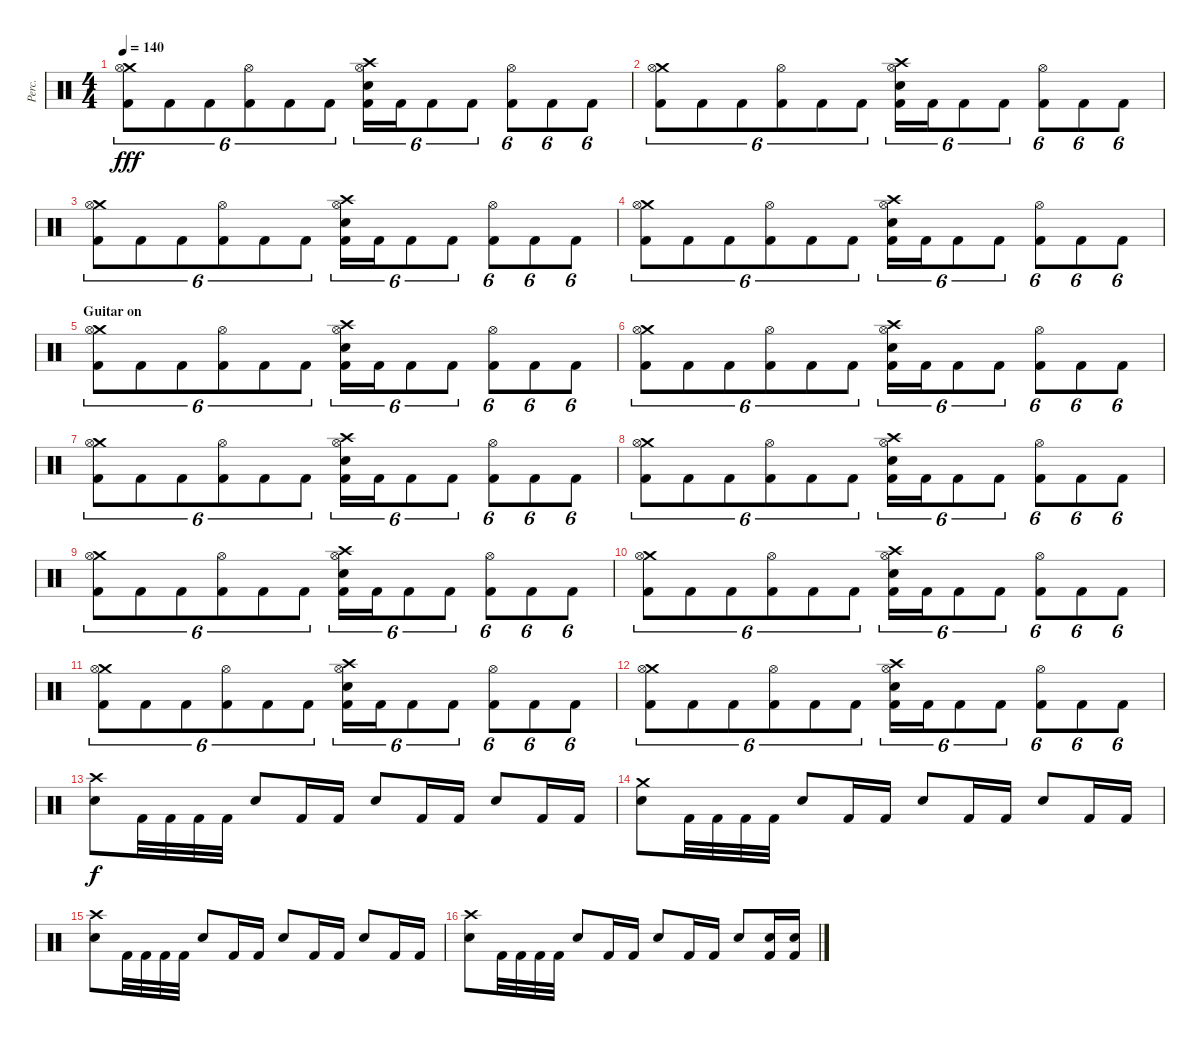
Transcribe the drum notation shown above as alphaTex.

\track ("Perc." "Perc.") {instrument percussion}
\staff {score}
\articulation defaults
\ts (4 4)
\tempo 140
\clef neutral
\ks c
("Crash medium (hit)" "Hi-Hat (open)" "Kick (hit) 2").8{tu (6 4) dy fff} "Kick (hit) 2".8{tu (6 4)} "Kick (hit) 2".8{tu (6 4)} ("Hi-Hat (open)" "Kick (hit) 2").8{tu (6 4)} "Kick (hit) 2".8{tu (6 4)} "Kick (hit) 2".8{tu (6 4)} ("Crash high (hit)" "Electric Snare (hit)" "Hi-Hat (open)" "Kick (hit) 2").16{tu (6 4)} "Kick (hit) 2".16{tu (6 4)} "Kick (hit) 2".8{tu (6 4)} "Kick (hit) 2".8{tu (6 4)} ("Hi-Hat (open)" "Kick (hit) 2").8{tu (6 4)} "Kick (hit) 2".8{tu (6 4)} "Kick (hit) 2".8{tu (6 4)} |
("Crash medium (hit)" "Hi-Hat (open)" "Kick (hit) 2").8{tu (6 4)} "Kick (hit) 2".8{tu (6 4)} "Kick (hit) 2".8{tu (6 4)} ("Hi-Hat (open)" "Kick (hit) 2").8{tu (6 4)} "Kick (hit) 2".8{tu (6 4)} "Kick (hit) 2".8{tu (6 4)} ("Crash high (hit)" "Electric Snare (hit)" "Hi-Hat (open)" "Kick (hit) 2").16{tu (6 4)} "Kick (hit) 2".16{tu (6 4)} "Kick (hit) 2".8{tu (6 4)} "Kick (hit) 2".8{tu (6 4)} ("Hi-Hat (open)" "Kick (hit) 2").8{tu (6 4)} "Kick (hit) 2".8{tu (6 4)} "Kick (hit) 2".8{tu (6 4)} |
("Crash medium (hit)" "Hi-Hat (open)" "Kick (hit) 2").8{tu (6 4)} "Kick (hit) 2".8{tu (6 4)} "Kick (hit) 2".8{tu (6 4)} ("Hi-Hat (open)" "Kick (hit) 2").8{tu (6 4)} "Kick (hit) 2".8{tu (6 4)} "Kick (hit) 2".8{tu (6 4)} ("Crash high (hit)" "Electric Snare (hit)" "Hi-Hat (open)" "Kick (hit) 2").16{tu (6 4)} "Kick (hit) 2".16{tu (6 4)} "Kick (hit) 2".8{tu (6 4)} "Kick (hit) 2".8{tu (6 4)} ("Hi-Hat (open)" "Kick (hit) 2").8{tu (6 4)} "Kick (hit) 2".8{tu (6 4)} "Kick (hit) 2".8{tu (6 4)} |
("Crash medium (hit)" "Hi-Hat (open)" "Kick (hit) 2").8{tu (6 4)} "Kick (hit) 2".8{tu (6 4)} "Kick (hit) 2".8{tu (6 4)} ("Hi-Hat (open)" "Kick (hit) 2").8{tu (6 4)} "Kick (hit) 2".8{tu (6 4)} "Kick (hit) 2".8{tu (6 4)} ("Crash high (hit)" "Electric Snare (hit)" "Hi-Hat (open)" "Kick (hit) 2").16{tu (6 4)} "Kick (hit) 2".16{tu (6 4)} "Kick (hit) 2".8{tu (6 4)} "Kick (hit) 2".8{tu (6 4)} ("Hi-Hat (open)" "Kick (hit) 2").8{tu (6 4)} "Kick (hit) 2".8{tu (6 4)} "Kick (hit) 2".8{tu (6 4)} |
\section ("" "Guitar on")
("Crash medium (hit)" "Hi-Hat (open)" "Kick (hit) 2").8{tu (6 4)} "Kick (hit) 2".8{tu (6 4)} "Kick (hit) 2".8{tu (6 4)} ("Hi-Hat (open)" "Kick (hit) 2").8{tu (6 4)} "Kick (hit) 2".8{tu (6 4)} "Kick (hit) 2".8{tu (6 4)} ("Crash high (hit)" "Electric Snare (hit)" "Hi-Hat (open)" "Kick (hit) 2").16{tu (6 4)} "Kick (hit) 2".16{tu (6 4)} "Kick (hit) 2".8{tu (6 4)} "Kick (hit) 2".8{tu (6 4)} ("Hi-Hat (open)" "Kick (hit) 2").8{tu (6 4)} "Kick (hit) 2".8{tu (6 4)} "Kick (hit) 2".8{tu (6 4)} |
("Crash medium (hit)" "Hi-Hat (open)" "Kick (hit) 2").8{tu (6 4)} "Kick (hit) 2".8{tu (6 4)} "Kick (hit) 2".8{tu (6 4)} ("Hi-Hat (open)" "Kick (hit) 2").8{tu (6 4)} "Kick (hit) 2".8{tu (6 4)} "Kick (hit) 2".8{tu (6 4)} ("Crash high (hit)" "Electric Snare (hit)" "Hi-Hat (open)" "Kick (hit) 2").16{tu (6 4)} "Kick (hit) 2".16{tu (6 4)} "Kick (hit) 2".8{tu (6 4)} "Kick (hit) 2".8{tu (6 4)} ("Hi-Hat (open)" "Kick (hit) 2").8{tu (6 4)} "Kick (hit) 2".8{tu (6 4)} "Kick (hit) 2".8{tu (6 4)} |
("Crash medium (hit)" "Hi-Hat (open)" "Kick (hit) 2").8{tu (6 4)} "Kick (hit) 2".8{tu (6 4)} "Kick (hit) 2".8{tu (6 4)} ("Hi-Hat (open)" "Kick (hit) 2").8{tu (6 4)} "Kick (hit) 2".8{tu (6 4)} "Kick (hit) 2".8{tu (6 4)} ("Crash high (hit)" "Electric Snare (hit)" "Hi-Hat (open)" "Kick (hit) 2").16{tu (6 4)} "Kick (hit) 2".16{tu (6 4)} "Kick (hit) 2".8{tu (6 4)} "Kick (hit) 2".8{tu (6 4)} ("Hi-Hat (open)" "Kick (hit) 2").8{tu (6 4)} "Kick (hit) 2".8{tu (6 4)} "Kick (hit) 2".8{tu (6 4)} |
("Crash medium (hit)" "Hi-Hat (open)" "Kick (hit) 2").8{tu (6 4)} "Kick (hit) 2".8{tu (6 4)} "Kick (hit) 2".8{tu (6 4)} ("Hi-Hat (open)" "Kick (hit) 2").8{tu (6 4)} "Kick (hit) 2".8{tu (6 4)} "Kick (hit) 2".8{tu (6 4)} ("Crash high (hit)" "Electric Snare (hit)" "Hi-Hat (open)" "Kick (hit) 2").16{tu (6 4)} "Kick (hit) 2".16{tu (6 4)} "Kick (hit) 2".8{tu (6 4)} "Kick (hit) 2".8{tu (6 4)} ("Hi-Hat (open)" "Kick (hit) 2").8{tu (6 4)} "Kick (hit) 2".8{tu (6 4)} "Kick (hit) 2".8{tu (6 4)} |
("Crash medium (hit)" "Hi-Hat (open)" "Kick (hit) 2").8{tu (6 4)} "Kick (hit) 2".8{tu (6 4)} "Kick (hit) 2".8{tu (6 4)} ("Hi-Hat (open)" "Kick (hit) 2").8{tu (6 4)} "Kick (hit) 2".8{tu (6 4)} "Kick (hit) 2".8{tu (6 4)} ("Crash high (hit)" "Electric Snare (hit)" "Hi-Hat (open)" "Kick (hit) 2").16{tu (6 4)} "Kick (hit) 2".16{tu (6 4)} "Kick (hit) 2".8{tu (6 4)} "Kick (hit) 2".8{tu (6 4)} ("Hi-Hat (open)" "Kick (hit) 2").8{tu (6 4)} "Kick (hit) 2".8{tu (6 4)} "Kick (hit) 2".8{tu (6 4)} |
("Crash medium (hit)" "Hi-Hat (open)" "Kick (hit) 2").8{tu (6 4)} "Kick (hit) 2".8{tu (6 4)} "Kick (hit) 2".8{tu (6 4)} ("Hi-Hat (open)" "Kick (hit) 2").8{tu (6 4)} "Kick (hit) 2".8{tu (6 4)} "Kick (hit) 2".8{tu (6 4)} ("Crash high (hit)" "Electric Snare (hit)" "Hi-Hat (open)" "Kick (hit) 2").16{tu (6 4)} "Kick (hit) 2".16{tu (6 4)} "Kick (hit) 2".8{tu (6 4)} "Kick (hit) 2".8{tu (6 4)} ("Hi-Hat (open)" "Kick (hit) 2").8{tu (6 4)} "Kick (hit) 2".8{tu (6 4)} "Kick (hit) 2".8{tu (6 4)} |
("Crash medium (hit)" "Hi-Hat (open)" "Kick (hit) 2").8{tu (6 4)} "Kick (hit) 2".8{tu (6 4)} "Kick (hit) 2".8{tu (6 4)} ("Hi-Hat (open)" "Kick (hit) 2").8{tu (6 4)} "Kick (hit) 2".8{tu (6 4)} "Kick (hit) 2".8{tu (6 4)} ("Crash high (hit)" "Electric Snare (hit)" "Hi-Hat (open)" "Kick (hit) 2").16{tu (6 4)} "Kick (hit) 2".16{tu (6 4)} "Kick (hit) 2".8{tu (6 4)} "Kick (hit) 2".8{tu (6 4)} ("Hi-Hat (open)" "Kick (hit) 2").8{tu (6 4)} "Kick (hit) 2".8{tu (6 4)} "Kick (hit) 2".8{tu (6 4)} |
("Crash medium (hit)" "Hi-Hat (open)" "Kick (hit) 2").8{tu (6 4)} "Kick (hit) 2".8{tu (6 4)} "Kick (hit) 2".8{tu (6 4)} ("Hi-Hat (open)" "Kick (hit) 2").8{tu (6 4)} "Kick (hit) 2".8{tu (6 4)} "Kick (hit) 2".8{tu (6 4)} ("Crash high (hit)" "Electric Snare (hit)" "Hi-Hat (open)" "Kick (hit) 2").16{tu (6 4)} "Kick (hit) 2".16{tu (6 4)} "Kick (hit) 2".8{tu (6 4)} "Kick (hit) 2".8{tu (6 4)} ("Hi-Hat (open)" "Kick (hit) 2").8{tu (6 4)} "Kick (hit) 2".8{tu (6 4)} "Kick (hit) 2".8{tu (6 4)} |
("Crash high (hit)" "Electric Snare (hit)").8{dy f} "Kick (hit) 2".32 "Kick (hit) 2".32 "Kick (hit) 2".32 "Kick (hit) 2".32 "Electric Snare (hit)".8 "Kick (hit) 2".16 "Kick (hit) 2".16 "Electric Snare (hit)".8 "Kick (hit) 2".16 "Kick (hit) 2".16 "Electric Snare (hit)".8 "Kick (hit) 2".16 "Kick (hit) 2".16 |
("Crash medium (hit)" "Electric Snare (hit)").8 "Kick (hit) 2".32 "Kick (hit) 2".32 "Kick (hit) 2".32 "Kick (hit) 2".32 "Electric Snare (hit)".8 "Kick (hit) 2".16 "Kick (hit) 2".16 "Electric Snare (hit)".8 "Kick (hit) 2".16 "Kick (hit) 2".16 "Electric Snare (hit)".8 "Kick (hit) 2".16 "Kick (hit) 2".16 |
("Crash high (hit)" "Electric Snare (hit)").8 "Kick (hit) 2".32 "Kick (hit) 2".32 "Kick (hit) 2".32 "Kick (hit) 2".32 "Electric Snare (hit)".8 "Kick (hit) 2".16 "Kick (hit) 2".16 "Electric Snare (hit)".8 "Kick (hit) 2".16 "Kick (hit) 2".16 "Electric Snare (hit)".8 "Kick (hit) 2".16 "Kick (hit) 2".16 |
("Crash high (hit)" "Electric Snare (hit)").8 "Kick (hit) 2".32 "Kick (hit) 2".32 "Kick (hit) 2".32 "Kick (hit) 2".32 "Electric Snare (hit)".8 "Kick (hit) 2".16 "Kick (hit) 2".16 "Electric Snare (hit)".8 "Kick (hit) 2".16 "Kick (hit) 2".16 "Electric Snare (hit)".8 ("Electric Snare (hit)" "Kick (hit) 2").16 ("Electric Snare (hit)" "Kick (hit) 2").16
